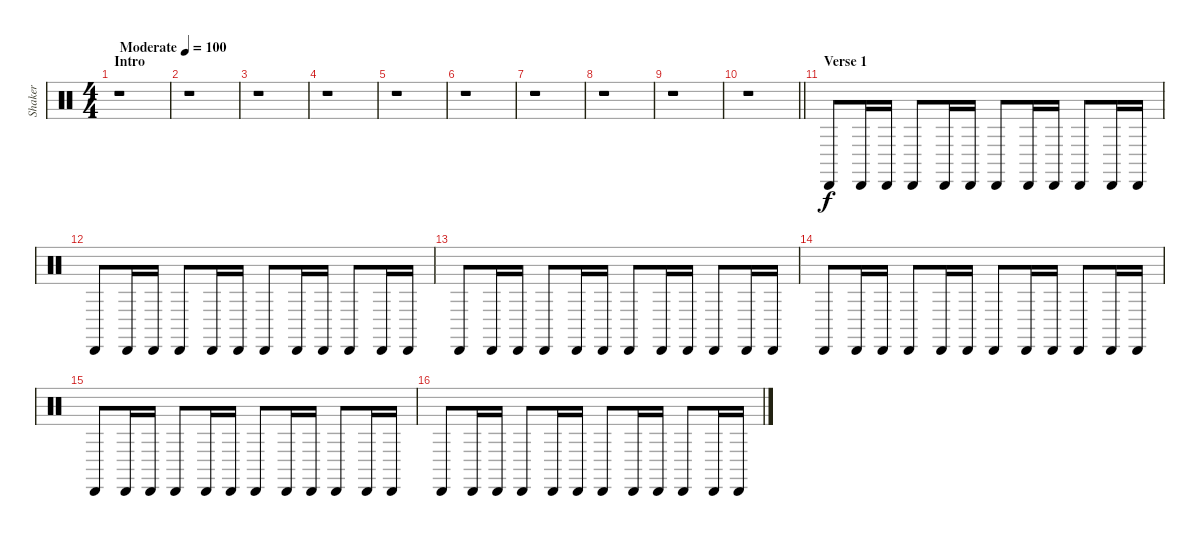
\track ("Shaker" "Shaker") {instrument percussion}
\staff {score}
\articulation defaults
\ts (4 4)
\section ("" "Intro")
\tempo (100 "Moderate")
\clef neutral
\ks c
r.1{dy f volume 6 balance 5} |
r.1 |
r.1 |
r.1 |
r.1 |
r.1 |
r.1 |
r.1 |
r.1 |
\barLineRight lightlight
r.1 |
\section ("" "Verse 1")
"Cabasa (hit)".8 "Cabasa (hit)".16 "Cabasa (hit)".16 "Cabasa (hit)".8 "Cabasa (hit)".16 "Cabasa (hit)".16 "Cabasa (hit)".8 "Cabasa (hit)".16 "Cabasa (hit)".16 "Cabasa (hit)".8 "Cabasa (hit)".16 "Cabasa (hit)".16 |
"Cabasa (hit)".8 "Cabasa (hit)".16 "Cabasa (hit)".16 "Cabasa (hit)".8 "Cabasa (hit)".16 "Cabasa (hit)".16 "Cabasa (hit)".8 "Cabasa (hit)".16 "Cabasa (hit)".16 "Cabasa (hit)".8 "Cabasa (hit)".16 "Cabasa (hit)".16 |
"Cabasa (hit)".8 "Cabasa (hit)".16 "Cabasa (hit)".16 "Cabasa (hit)".8 "Cabasa (hit)".16 "Cabasa (hit)".16 "Cabasa (hit)".8 "Cabasa (hit)".16 "Cabasa (hit)".16 "Cabasa (hit)".8 "Cabasa (hit)".16 "Cabasa (hit)".16 |
"Cabasa (hit)".8 "Cabasa (hit)".16 "Cabasa (hit)".16 "Cabasa (hit)".8 "Cabasa (hit)".16 "Cabasa (hit)".16 "Cabasa (hit)".8 "Cabasa (hit)".16 "Cabasa (hit)".16 "Cabasa (hit)".8 "Cabasa (hit)".16 "Cabasa (hit)".16 |
"Cabasa (hit)".8 "Cabasa (hit)".16 "Cabasa (hit)".16 "Cabasa (hit)".8 "Cabasa (hit)".16 "Cabasa (hit)".16 "Cabasa (hit)".8 "Cabasa (hit)".16 "Cabasa (hit)".16 "Cabasa (hit)".8 "Cabasa (hit)".16 "Cabasa (hit)".16 |
"Cabasa (hit)".8 "Cabasa (hit)".16 "Cabasa (hit)".16 "Cabasa (hit)".8 "Cabasa (hit)".16 "Cabasa (hit)".16 "Cabasa (hit)".8 "Cabasa (hit)".16 "Cabasa (hit)".16 "Cabasa (hit)".8 "Cabasa (hit)".16 "Cabasa (hit)".16
